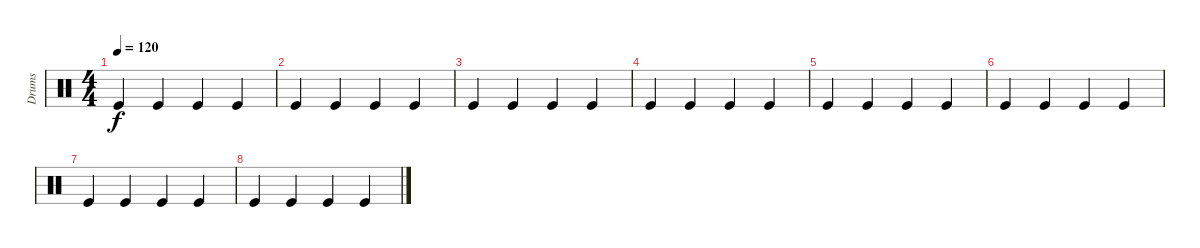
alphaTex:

\track ("Drums" "Drums") {instrument percussion}
\staff {score}
\articulation defaults
\ts (4 4)
\tempo 120
\clef neutral
\ks c "Kick (hit)".4{dy f} "Kick (hit)".4 "Kick (hit)".4 "Kick (hit)".4
|
"Kick (hit)".4 "Kick (hit)".4 "Kick (hit)".4 "Kick (hit)".4 |
"Kick (hit)".4 "Kick (hit)".4 "Kick (hit)".4 "Kick (hit)".4 |
"Kick (hit)".4 "Kick (hit)".4 "Kick (hit)".4 "Kick (hit)".4 |
"Kick (hit)".4 "Kick (hit)".4 "Kick (hit)".4 "Kick (hit)".4 |
"Kick (hit)".4 "Kick (hit)".4 "Kick (hit)".4 "Kick (hit)".4 |
"Kick (hit)".4 "Kick (hit)".4 "Kick (hit)".4 "Kick (hit)".4 |
"Kick (hit)".4 "Kick (hit)".4 "Kick (hit)".4 "Kick (hit)".4
